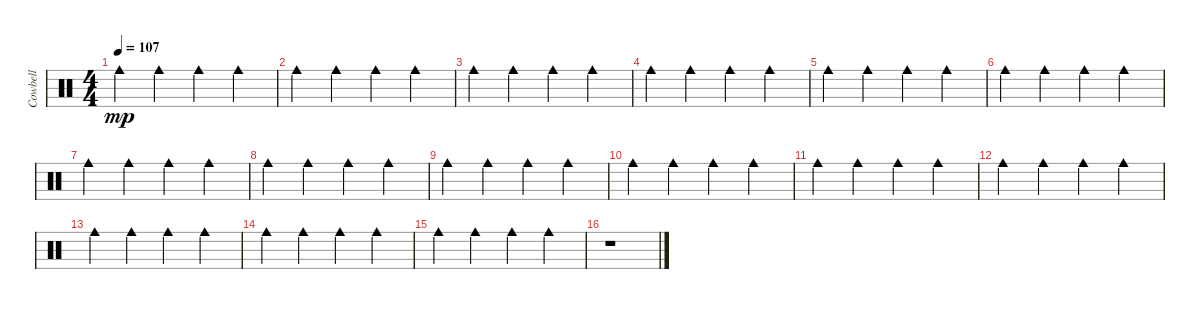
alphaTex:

\track ("Cowbell" "Cowbell") {instrument percussion}
\staff {score}
\articulation defaults
\ts (4 4)
\tempo 107
\clef neutral
\ks c "Cowbell medium (hit)".4{dy mp} "Cowbell medium (hit)".4 "Cowbell medium (hit)".4 "Cowbell medium (hit)".4
|
"Cowbell medium (hit)".4 "Cowbell medium (hit)".4 "Cowbell medium (hit)".4 "Cowbell medium (hit)".4 |
"Cowbell medium (hit)".4 "Cowbell medium (hit)".4 "Cowbell medium (hit)".4 "Cowbell medium (hit)".4 |
"Cowbell medium (hit)".4 "Cowbell medium (hit)".4 "Cowbell medium (hit)".4 "Cowbell medium (hit)".4 |
"Cowbell medium (hit)".4 "Cowbell medium (hit)".4 "Cowbell medium (hit)".4 "Cowbell medium (hit)".4 |
"Cowbell medium (hit)".4 "Cowbell medium (hit)".4 "Cowbell medium (hit)".4 "Cowbell medium (hit)".4 |
"Cowbell medium (hit)".4 "Cowbell medium (hit)".4 "Cowbell medium (hit)".4 "Cowbell medium (hit)".4 |
"Cowbell medium (hit)".4 "Cowbell medium (hit)".4 "Cowbell medium (hit)".4 "Cowbell medium (hit)".4 |
"Cowbell medium (hit)".4 "Cowbell medium (hit)".4 "Cowbell medium (hit)".4 "Cowbell medium (hit)".4 |
"Cowbell medium (hit)".4 "Cowbell medium (hit)".4 "Cowbell medium (hit)".4 "Cowbell medium (hit)".4 |
"Cowbell medium (hit)".4 "Cowbell medium (hit)".4 "Cowbell medium (hit)".4 "Cowbell medium (hit)".4 |
"Cowbell medium (hit)".4 "Cowbell medium (hit)".4 "Cowbell medium (hit)".4 "Cowbell medium (hit)".4 |
"Cowbell medium (hit)".4 "Cowbell medium (hit)".4 "Cowbell medium (hit)".4 "Cowbell medium (hit)".4 |
"Cowbell medium (hit)".4 "Cowbell medium (hit)".4 "Cowbell medium (hit)".4 "Cowbell medium (hit)".4 |
"Cowbell medium (hit)".4 "Cowbell medium (hit)".4 "Cowbell medium (hit)".4 "Cowbell medium (hit)".4 |
r.1
